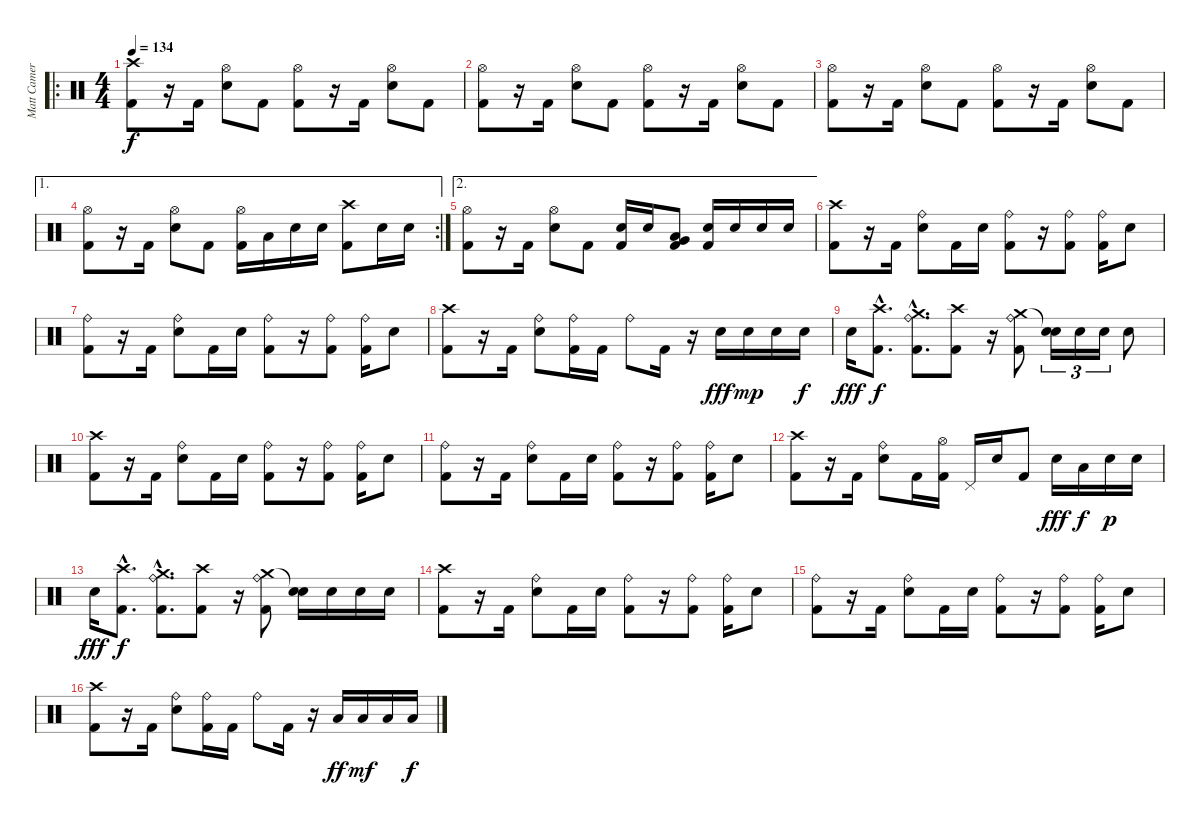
\track ("Matt Cameron" "Matt Camer") {instrument percussion}
\staff {score}
\articulation defaults
\ro
\ts (4 4)
\tempo 134
\clef neutral
\ks c
("Crash high (hit)" "Kick (hit) 2").8{dy f} r.16 "Kick (hit) 2".16 ("Hi-Hat (open)" "Electric Snare (hit)").8 "Kick (hit) 2".8 ("Hi-Hat (open)" "Kick (hit) 2").8 r.16 "Kick (hit) 2".16 ("Hi-Hat (open)" "Electric Snare (hit)").8 "Kick (hit) 2".8 |
("Hi-Hat (open)" "Kick (hit) 2").8 r.16 "Kick (hit) 2".16 ("Hi-Hat (open)" "Electric Snare (hit)").8 "Kick (hit) 2".8 ("Hi-Hat (open)" "Kick (hit) 2").8 r.16 "Kick (hit) 2".16 ("Hi-Hat (open)" "Electric Snare (hit)").8 "Kick (hit) 2".8 |
("Hi-Hat (open)" "Kick (hit) 2").8 r.16 "Kick (hit) 2".16 ("Hi-Hat (open)" "Electric Snare (hit)").8 "Kick (hit) 2".8 ("Hi-Hat (open)" "Kick (hit) 2").8 r.16 "Kick (hit) 2".16 ("Hi-Hat (open)" "Electric Snare (hit)").8 "Kick (hit) 2".8 |
\ae 1
\rc 2
("Hi-Hat (open)" "Kick (hit) 2").8 r.16 "Kick (hit) 2".16 ("Hi-Hat (open)" "Electric Snare (hit)").8 "Kick (hit) 2".8 ("Hi-Hat (open)" "Kick (hit) 2").16 "Low Tom (hit)".16 "Electric Snare (hit)".16 "Electric Snare (hit)".16 ("Crash high (hit)" "Kick (hit) 2").8 "Electric Snare (hit)".16 "Electric Snare (hit)".16 |
\ae 2
("Hi-Hat (open)" "Kick (hit) 2").8 r.16 "Kick (hit) 2".16 ("Hi-Hat (open)" "Electric Snare (hit)").8 "Kick (hit) 2".8 ("Electric Snare (hit)" "Kick (hit) 2").16 "Electric Snare (hit)".16 ("Very Low Tom (hit)" "Low Floor Tom (hit)" "Kick (hit) 2").8 ("Electric Snare (hit)" "Kick (hit) 2").16 "Electric Snare (hit)".16 "Electric Snare (hit)".16 "Electric Snare (hit)".16 |
("Crash high (hit)" "Kick (hit) 2").8 r.16 "Kick (hit) 2".16 ("Ride (bell)" "Electric Snare (hit)").8 "Kick (hit) 2".16 "Electric Snare (hit)".16 ("Ride (bell)" "Kick (hit) 2").8 r.16 ("Ride (bell)" "Kick (hit) 2").8 ("Ride (bell)" "Kick (hit) 2").16 "Electric Snare (hit)".8 |
("Ride (bell)" "Kick (hit) 2").8 r.16 "Kick (hit) 2".16 ("Ride (bell)" "Electric Snare (hit)").8 "Kick (hit) 2".16 "Electric Snare (hit)".16 ("Ride (bell)" "Kick (hit) 2").8 r.16 ("Ride (bell)" "Kick (hit) 2").8 ("Ride (bell)" "Kick (hit) 2").16 "Electric Snare (hit)".8 |
("Crash high (hit)" "Kick (hit) 2").8 r.16 "Kick (hit) 2".16 ("Ride (bell)" "Electric Snare (hit)").8 ("Ride (bell)" "Kick (hit) 2").16 "Kick (hit) 2".16 "Ride (bell)".8 "Kick (hit) 2".16 r.16 "Electric Snare (hit)".16{dy fff} "Electric Snare (hit)".16{dy mp} "Electric Snare (hit)".16 "Electric Snare (hit)".16{dy f} |
"Electric Snare (hit)".16{dy fff} ("Crash high (hit)"{hac} "Kick (hit) 2"{hac}).8{d dy f} ("Ride (bell)"{hac} "Crash medium (hit)"{hac} "Kick (hit) 2"{hac}).8{d} ("Crash high (hit)" "Kick (hit) 2").8 r.16 ("Ride (bell)" "Crash medium (hit)" "Kick (hit) 2").8 ("Electric Snare (hit)" "Snare (hit)"{t}).16{tu (3 2)} "Electric Snare (hit)".16{tu (3 2)} "Electric Snare (hit)".16{tu (3 2)} "Electric Snare (hit)".8 |
("Crash high (hit)" "Kick (hit) 2").8 r.16 "Kick (hit) 2".16 ("Ride (bell)" "Electric Snare (hit)").8 "Kick (hit) 2".16 "Electric Snare (hit)".16 ("Ride (bell)" "Kick (hit) 2").8 r.16 ("Ride (bell)" "Kick (hit) 2").8 ("Ride (bell)" "Kick (hit) 2").16 "Electric Snare (hit)".8 |
("Ride (bell)" "Kick (hit) 2").8 r.16 "Kick (hit) 2".16 ("Ride (bell)" "Electric Snare (hit)").8 "Kick (hit) 2".16 "Electric Snare (hit)".16 ("Ride (bell)" "Kick (hit) 2").8 r.16 ("Ride (bell)" "Kick (hit) 2").8 ("Ride (bell)" "Kick (hit) 2").16 "Electric Snare (hit)".8 |
("Crash high (hit)" "Kick (hit) 2").8 r.16 "Kick (hit) 2".16 ("Ride (bell)" "Electric Snare (hit)").8 "Kick (hit) 2".16 ("Hi-Hat (open)" "Kick (hit) 2").16 "Pedal Hi-Hat (hit)".16 "Electric Snare (hit)".16 "Kick (hit) 2".8 "Electric Snare (hit)".16{dy fff} "Low Tom (hit)".16{dy f} "Electric Snare (hit)".16{dy p} "Electric Snare (hit)".16 |
"Electric Snare (hit)".16{dy fff} ("Crash high (hit)"{hac} "Kick (hit) 2"{hac}).8{d dy f} ("Ride (bell)"{hac} "Crash medium (hit)"{hac} "Kick (hit) 2"{hac}).8{d} ("Crash high (hit)" "Kick (hit) 2").8 r.16 ("Ride (bell)" "Crash medium (hit)" "Kick (hit) 2").8 ("Electric Snare (hit)" "Snare (hit)"{t}).16 "Electric Snare (hit)".16 "Electric Snare (hit)".16 "Electric Snare (hit)".16 |
("Crash high (hit)" "Kick (hit) 2").8 r.16 "Kick (hit) 2".16 ("Ride (bell)" "Electric Snare (hit)").8 "Kick (hit) 2".16 "Electric Snare (hit)".16 ("Ride (bell)" "Kick (hit) 2").8 r.16 ("Ride (bell)" "Kick (hit) 2").8 ("Ride (bell)" "Kick (hit) 2").16 "Electric Snare (hit)".8 |
("Ride (bell)" "Kick (hit) 2").8 r.16 "Kick (hit) 2".16 ("Ride (bell)" "Electric Snare (hit)").8 "Kick (hit) 2".16 "Electric Snare (hit)".16 ("Ride (bell)" "Kick (hit) 2").8 r.16 ("Ride (bell)" "Kick (hit) 2").8 ("Ride (bell)" "Kick (hit) 2").16 "Electric Snare (hit)".8 |
("Crash high (hit)" "Kick (hit) 2").8 r.16 "Kick (hit) 2".16 ("Ride (bell)" "Electric Snare (hit)").8 ("Ride (bell)" "Kick (hit) 2").16 "Kick (hit) 2".16 "Ride (bell)".8 "Kick (hit) 2".16 r.16 "Low Floor Tom (hit)".16{dy ff} "Low Floor Tom (hit)".16{dy mf} "Low Floor Tom (hit)".16 "Low Floor Tom (hit)".16{dy f}
